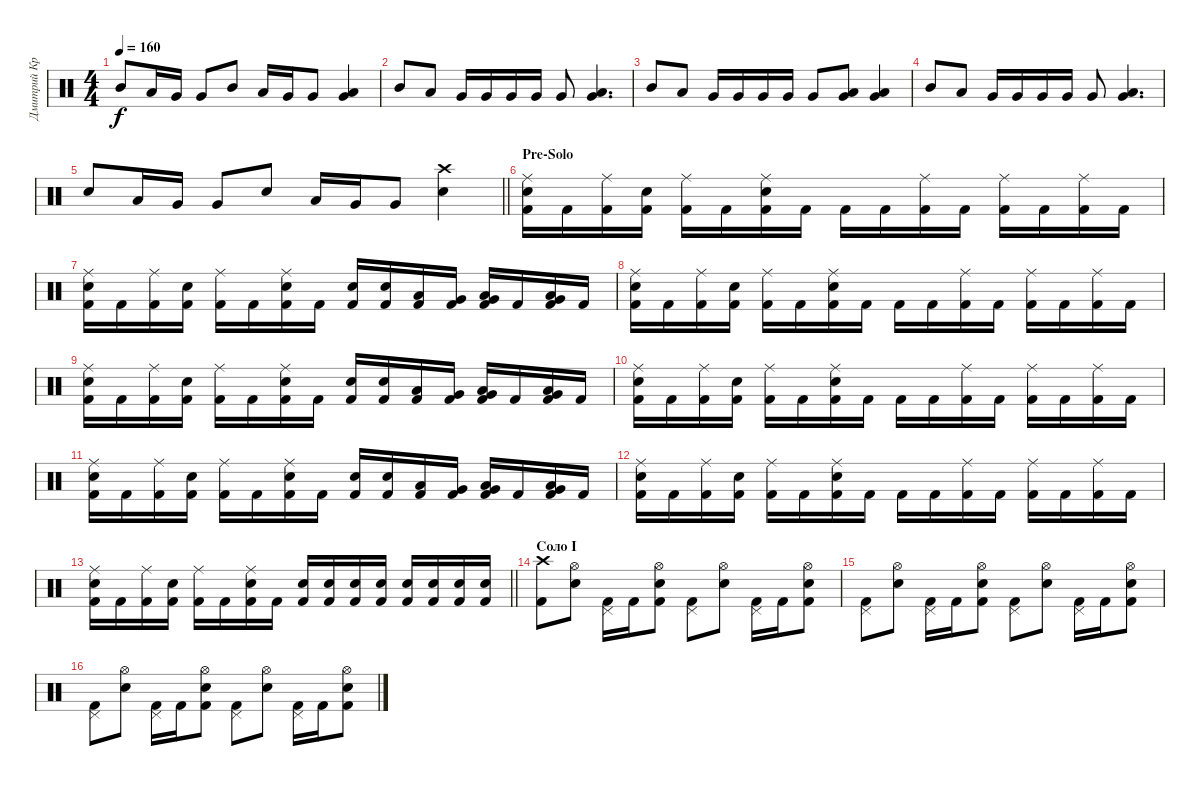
\track ("Дмитрий Кривенков" "Дмитрий Кр") {instrument percussion}
\staff {score}
\articulation defaults
\ts (4 4)
\tempo 160
\clef neutral
\ks c "Mid Tom (hit)".8{dy f} "Low Tom (hit)".16 "Very Low Tom (hit)".16 "Very Low Tom (hit)".8 "Mid Tom (hit)".8 "Low Tom (hit)".16 "Very Low Tom (hit)".16 "Very Low Tom (hit)".8
("Low Tom (hit)" "Very Low Tom (hit)").4 |
"Mid Tom (hit)".8 "Low Tom (hit)".8 "Very Low Tom (hit)".16 "Very Low Tom (hit)".16 "Very Low Tom (hit)".16 "Very Low Tom (hit)".16 "Very Low Tom (hit)".8 ("Low Tom (hit)" "Very Low Tom (hit)").4{d} |
"Mid Tom (hit)".8 "Low Tom (hit)".8 "Very Low Tom (hit)".16 "Very Low Tom (hit)".16 "Very Low Tom (hit)".16 "Very Low Tom (hit)".16 "Very Low Tom (hit)".8 ("Low Tom (hit)" "Very Low Tom (hit)").8 ("Low Tom (hit)" "Very Low Tom (hit)").4 |
"Mid Tom (hit)".8 "Low Tom (hit)".8 "Very Low Tom (hit)".16 "Very Low Tom (hit)".16 "Very Low Tom (hit)".16 "Very Low Tom (hit)".16 "Very Low Tom (hit)".8 ("Low Tom (hit)" "Very Low Tom (hit)").4{d} |
\barLineRight lightlight "Electric Snare (hit)".8 "Low Tom (hit)".16 "Very Low Tom (hit)".16 "Very Low Tom (hit)".8 "Electric Snare (hit)".8 "Low Tom (hit)".16 "Very Low Tom (hit)".16 "Very Low Tom (hit)".8
("Electric Snare (hit)" "Crash high (hit)").4 |
\section ("" "Pre-Solo")
("Ride (middle)" "Electric Snare (hit)" "Kick (hit) 2").16 "Kick (hit) 2".16 ("Ride (middle)" "Kick (hit) 2").16 ("Electric Snare (hit)" "Kick (hit) 2").16 ("Ride (middle)" "Kick (hit) 2").16 "Kick (hit) 2".16 ("Ride (middle)" "Electric Snare (hit)" "Kick (hit) 2").16 "Kick (hit) 2".16 "Kick (hit) 2".16 "Kick (hit) 2".16 ("Ride (middle)" "Kick (hit) 2").16 "Kick (hit) 2".16 ("Ride (middle)" "Kick (hit) 2").16 "Kick (hit) 2".16 ("Ride (middle)" "Kick (hit) 2").16 "Kick (hit) 2".16 |
("Ride (middle)" "Electric Snare (hit)" "Kick (hit) 2").16 "Kick (hit) 2".16 ("Ride (middle)" "Kick (hit) 2").16 ("Electric Snare (hit)" "Kick (hit) 2").16 ("Ride (middle)" "Kick (hit) 2").16 "Kick (hit) 2".16 ("Ride (middle)" "Electric Snare (hit)" "Kick (hit) 2").16 "Kick (hit) 2".16 ("Electric Snare (hit)" "Kick (hit) 2").16 ("Electric Snare (hit)" "Kick (hit) 2").16 ("Low Tom (hit)" "Kick (hit) 2").16 ("Very Low Tom (hit)" "Kick (hit) 2").16 ("Low Tom (hit)" "Very Low Tom (hit)" "Kick (hit) 2").16 "Kick (hit) 2".16 ("Low Tom (hit)" "Very Low Tom (hit)" "Kick (hit) 2").16 "Kick (hit) 2".16 |
("Ride (middle)" "Electric Snare (hit)" "Kick (hit) 2").16 "Kick (hit) 2".16 ("Ride (middle)" "Kick (hit) 2").16 ("Electric Snare (hit)" "Kick (hit) 2").16 ("Ride (middle)" "Kick (hit) 2").16 "Kick (hit) 2".16 ("Ride (middle)" "Electric Snare (hit)" "Kick (hit) 2").16 "Kick (hit) 2".16 "Kick (hit) 2".16 "Kick (hit) 2".16 ("Ride (middle)" "Kick (hit) 2").16 "Kick (hit) 2".16 ("Ride (middle)" "Kick (hit) 2").16 "Kick (hit) 2".16 ("Ride (middle)" "Kick (hit) 2").16 "Kick (hit) 2".16 |
("Ride (middle)" "Electric Snare (hit)" "Kick (hit) 2").16 "Kick (hit) 2".16 ("Ride (middle)" "Kick (hit) 2").16 ("Electric Snare (hit)" "Kick (hit) 2").16 ("Ride (middle)" "Kick (hit) 2").16 "Kick (hit) 2".16 ("Ride (middle)" "Electric Snare (hit)" "Kick (hit) 2").16 "Kick (hit) 2".16 ("Electric Snare (hit)" "Kick (hit) 2").16 ("Electric Snare (hit)" "Kick (hit) 2").16 ("Low Tom (hit)" "Kick (hit) 2").16 ("Very Low Tom (hit)" "Kick (hit) 2").16 ("Low Tom (hit)" "Very Low Tom (hit)" "Kick (hit) 2").16 "Kick (hit) 2".16 ("Low Tom (hit)" "Very Low Tom (hit)" "Kick (hit) 2").16 "Kick (hit) 2".16 |
("Ride (middle)" "Electric Snare (hit)" "Kick (hit) 2").16 "Kick (hit) 2".16 ("Ride (middle)" "Kick (hit) 2").16 ("Electric Snare (hit)" "Kick (hit) 2").16 ("Ride (middle)" "Kick (hit) 2").16 "Kick (hit) 2".16 ("Ride (middle)" "Electric Snare (hit)" "Kick (hit) 2").16 "Kick (hit) 2".16 "Kick (hit) 2".16 "Kick (hit) 2".16 ("Ride (middle)" "Kick (hit) 2").16 "Kick (hit) 2".16 ("Ride (middle)" "Kick (hit) 2").16 "Kick (hit) 2".16 ("Ride (middle)" "Kick (hit) 2").16 "Kick (hit) 2".16 |
("Ride (middle)" "Electric Snare (hit)" "Kick (hit) 2").16 "Kick (hit) 2".16 ("Ride (middle)" "Kick (hit) 2").16 ("Electric Snare (hit)" "Kick (hit) 2").16 ("Ride (middle)" "Kick (hit) 2").16 "Kick (hit) 2".16 ("Ride (middle)" "Electric Snare (hit)" "Kick (hit) 2").16 "Kick (hit) 2".16 ("Electric Snare (hit)" "Kick (hit) 2").16 ("Electric Snare (hit)" "Kick (hit) 2").16 ("Low Tom (hit)" "Kick (hit) 2").16 ("Very Low Tom (hit)" "Kick (hit) 2").16 ("Low Tom (hit)" "Very Low Tom (hit)" "Kick (hit) 2").16 "Kick (hit) 2".16 ("Low Tom (hit)" "Very Low Tom (hit)" "Kick (hit) 2").16 "Kick (hit) 2".16 |
("Ride (middle)" "Electric Snare (hit)" "Kick (hit) 2").16 "Kick (hit) 2".16 ("Ride (middle)" "Kick (hit) 2").16 ("Electric Snare (hit)" "Kick (hit) 2").16 ("Ride (middle)" "Kick (hit) 2").16 "Kick (hit) 2".16 ("Ride (middle)" "Electric Snare (hit)" "Kick (hit) 2").16 "Kick (hit) 2".16 "Kick (hit) 2".16 "Kick (hit) 2".16 ("Ride (middle)" "Kick (hit) 2").16 "Kick (hit) 2".16 ("Ride (middle)" "Kick (hit) 2").16 "Kick (hit) 2".16 ("Ride (middle)" "Kick (hit) 2").16 "Kick (hit) 2".16 |
\barLineRight lightlight
("Ride (middle)" "Electric Snare (hit)" "Kick (hit) 2").16 "Kick (hit) 2".16 ("Ride (middle)" "Kick (hit) 2").16 ("Electric Snare (hit)" "Kick (hit) 2").16 ("Ride (middle)" "Kick (hit) 2").16 "Kick (hit) 2".16 ("Ride (middle)" "Electric Snare (hit)" "Kick (hit) 2").16 "Kick (hit) 2".16 ("Electric Snare (hit)" "Kick (hit) 2").16 ("Electric Snare (hit)" "Kick (hit) 2").16 ("Electric Snare (hit)" "Kick (hit) 2").16 ("Electric Snare (hit)" "Kick (hit) 2").16 ("Electric Snare (hit)" "Kick (hit) 2").16 ("Electric Snare (hit)" "Kick (hit) 2").16 ("Electric Snare (hit)" "Kick (hit) 2").16 ("Electric Snare (hit)" "Kick (hit) 2").16 |
\section ("" "Соло I")
("Crash high (hit)" "Kick (hit) 2").8 ("Hi-Hat (open)" "Electric Snare (hit)").8 ("Pedal Hi-Hat (hit)" "Kick (hit) 2").16 "Kick (hit) 2".16 ("Hi-Hat (open)" "Electric Snare (hit)" "Kick (hit) 2").8 ("Pedal Hi-Hat (hit)" "Kick (hit) 2").8 ("Hi-Hat (open)" "Electric Snare (hit)").8 ("Pedal Hi-Hat (hit)" "Kick (hit) 2").16 "Kick (hit) 2".16 ("Hi-Hat (open)" "Electric Snare (hit)" "Kick (hit) 2").8 |
("Pedal Hi-Hat (hit)" "Kick (hit) 2").8 ("Hi-Hat (open)" "Electric Snare (hit)").8 ("Pedal Hi-Hat (hit)" "Kick (hit) 2").16 "Kick (hit) 2".16 ("Hi-Hat (open)" "Electric Snare (hit)" "Kick (hit) 2").8 ("Pedal Hi-Hat (hit)" "Kick (hit) 2").8 ("Hi-Hat (open)" "Electric Snare (hit)").8 ("Pedal Hi-Hat (hit)" "Kick (hit) 2").16 "Kick (hit) 2".16 ("Hi-Hat (open)" "Electric Snare (hit)" "Kick (hit) 2").8 |
("Pedal Hi-Hat (hit)" "Kick (hit) 2").8 ("Hi-Hat (open)" "Electric Snare (hit)").8 ("Pedal Hi-Hat (hit)" "Kick (hit) 2").16 "Kick (hit) 2".16 ("Hi-Hat (open)" "Electric Snare (hit)" "Kick (hit) 2").8 ("Pedal Hi-Hat (hit)" "Kick (hit) 2").8 ("Hi-Hat (open)" "Electric Snare (hit)").8 ("Pedal Hi-Hat (hit)" "Kick (hit) 2").16 "Kick (hit) 2".16 ("Hi-Hat (open)" "Electric Snare (hit)" "Kick (hit) 2").8
